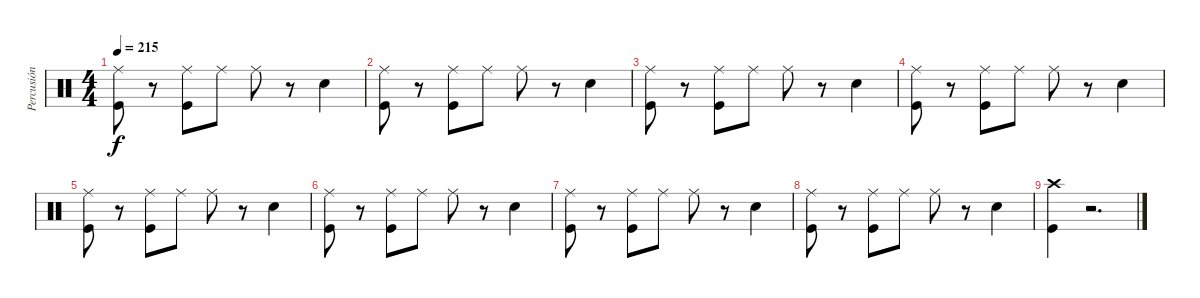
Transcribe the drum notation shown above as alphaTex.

\track ("Percusión" "Percusión") {instrument percussion}
\staff {score}
\articulation defaults
\ts (4 4)
\tempo 215
\clef neutral
\ks c
("Ride (middle)" "Kick (hit)").8{dy f} r.8 ("Ride (middle)" "Kick (hit)").8 "Ride (middle)".8 "Ride (middle)".8 r.8 "Snare (hit) 2".4 |
("Ride (middle)" "Kick (hit)").8 r.8 ("Ride (middle)" "Kick (hit)").8 "Ride (middle)".8 "Ride (middle)".8 r.8 "Snare (hit) 2".4 |
("Ride (middle)" "Kick (hit)").8 r.8 ("Ride (middle)" "Kick (hit)").8 "Ride (middle)".8 "Ride (middle)".8 r.8 "Snare (hit) 2".4 |
("Ride (middle)" "Kick (hit)").8 r.8 ("Ride (middle)" "Kick (hit)").8 "Ride (middle)".8 "Ride (middle)".8 r.8 "Snare (hit) 2".4 |
("Ride (middle)" "Kick (hit)").8 r.8 ("Ride (middle)" "Kick (hit)").8 "Ride (middle)".8 "Ride (middle)".8 r.8 "Snare (hit) 2".4 |
("Ride (middle)" "Kick (hit)").8 r.8 ("Ride (middle)" "Kick (hit)").8 "Ride (middle)".8 "Ride (middle)".8 r.8 "Snare (hit) 2".4 |
("Ride (middle)" "Kick (hit)").8 r.8 ("Ride (middle)" "Kick (hit)").8 "Ride (middle)".8 "Ride (middle)".8 r.8 "Snare (hit) 2".4 |
("Ride (middle)" "Kick (hit)").8 r.8 ("Ride (middle)" "Kick (hit)").8 "Ride (middle)".8 "Ride (middle)".8 r.8 "Snare (hit) 2".4 |
("Crash high (hit)" "Kick (hit)").4 r.2{d}
